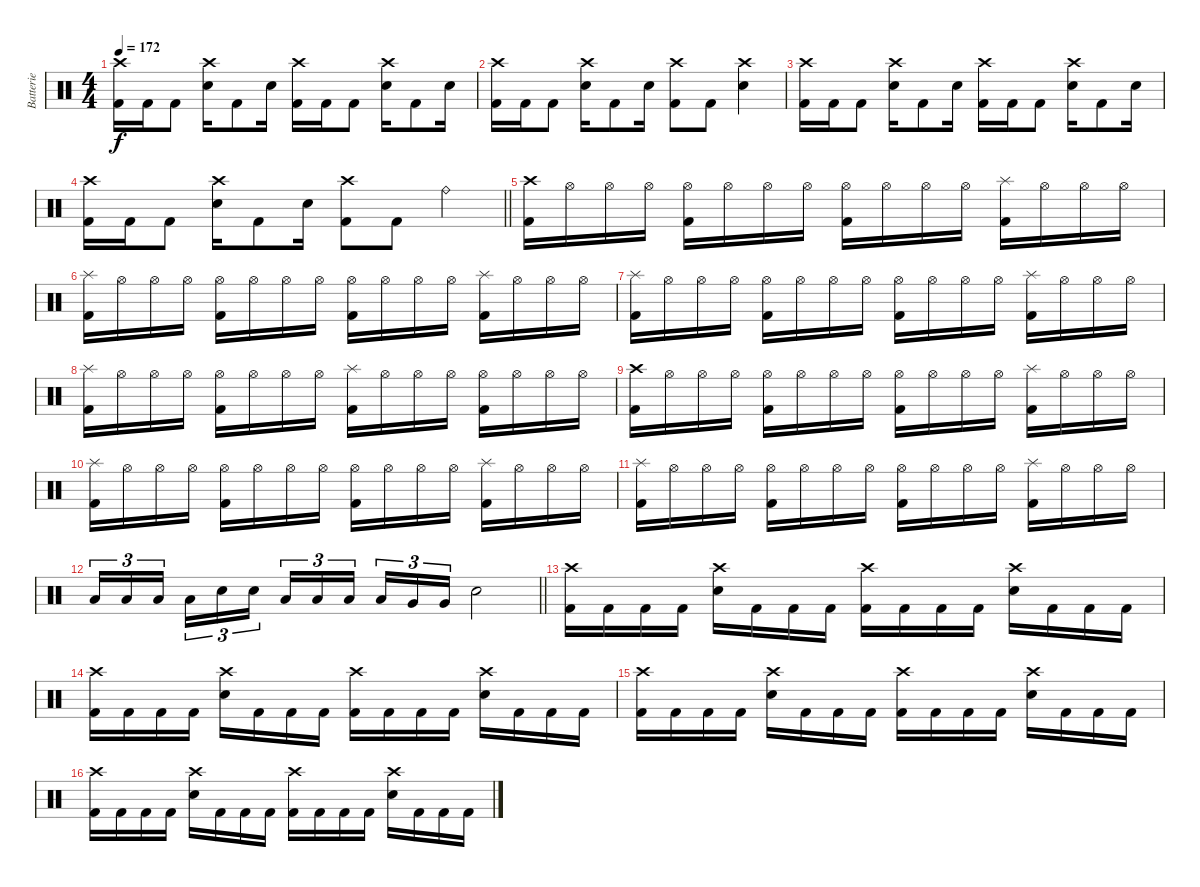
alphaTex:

\track ("Batterie" "Batterie") {instrument percussion}
\staff {score}
\articulation defaults
\ts (4 4)
\tempo 172
\clef neutral
\ks c
("Crash high (hit)" "Kick (hit) 2").16{dy f} "Kick (hit) 2".16 "Kick (hit) 2".8 ("Crash high (hit)" "Electric Snare (hit)").16 "Kick (hit) 2".8 "Electric Snare (hit)".16 ("Crash high (hit)" "Kick (hit) 2").16 "Kick (hit) 2".16 "Kick (hit) 2".8 ("Crash high (hit)" "Electric Snare (hit)").16 "Kick (hit) 2".8 "Electric Snare (hit)".16 |
("Crash high (hit)" "Kick (hit) 2").16 "Kick (hit) 2".16 "Kick (hit) 2".8 ("Crash high (hit)" "Electric Snare (hit)").16 "Kick (hit) 2".8 "Electric Snare (hit)".16 ("Crash high (hit)" "Kick (hit) 2").8 "Kick (hit) 2".8 ("Crash high (hit)" "Electric Snare (hit)").4 |
("Crash high (hit)" "Kick (hit) 2").16 "Kick (hit) 2".16 "Kick (hit) 2".8 ("Crash high (hit)" "Electric Snare (hit)").16 "Kick (hit) 2".8 "Electric Snare (hit)".16 ("Crash high (hit)" "Kick (hit) 2").16 "Kick (hit) 2".16 "Kick (hit) 2".8 ("Crash high (hit)" "Electric Snare (hit)").16 "Kick (hit) 2".8 "Electric Snare (hit)".16 |
\barLineRight lightlight
("Crash high (hit)" "Kick (hit) 2").16 "Kick (hit) 2".16 "Kick (hit) 2".8 ("Crash high (hit)" "Electric Snare (hit)").16 "Kick (hit) 2".8 "Electric Snare (hit)".16 ("Crash high (hit)" "Kick (hit) 2").8 "Kick (hit) 2".8 "Ride (bell)".4 |
("Crash high (hit)" "Kick (hit) 2").16 "Hi-Hat (open)".16 "Hi-Hat (open)".16 "Hi-Hat (open)".16 ("Hi-Hat (open)" "Kick (hit) 2").16 "Hi-Hat (open)".16 "Hi-Hat (open)".16 "Hi-Hat (open)".16 ("Hi-Hat (open)" "Kick (hit) 2").16 "Hi-Hat (open)".16 "Hi-Hat (open)".16 "Hi-Hat (open)".16 ("Splash (hit)" "Kick (hit) 2").16 "Hi-Hat (open)".16 "Hi-Hat (open)".16 "Hi-Hat (open)".16 |
("Splash (hit)" "Kick (hit) 2").16 "Hi-Hat (open)".16 "Hi-Hat (open)".16 "Hi-Hat (open)".16 ("Hi-Hat (open)" "Kick (hit) 2").16 "Hi-Hat (open)".16 "Hi-Hat (open)".16 "Hi-Hat (open)".16 ("Hi-Hat (open)" "Kick (hit) 2").16 "Hi-Hat (open)".16 "Hi-Hat (open)".16 "Hi-Hat (open)".16 ("Splash (hit)" "Kick (hit) 2").16 "Hi-Hat (open)".16 "Hi-Hat (open)".16 "Hi-Hat (open)".16 |
("Splash (hit)" "Kick (hit) 2").16 "Hi-Hat (open)".16 "Hi-Hat (open)".16 "Hi-Hat (open)".16 ("Hi-Hat (open)" "Kick (hit) 2").16 "Hi-Hat (open)".16 "Hi-Hat (open)".16 "Hi-Hat (open)".16 ("Hi-Hat (open)" "Kick (hit) 2").16 "Hi-Hat (open)".16 "Hi-Hat (open)".16 "Hi-Hat (open)".16 ("Splash (hit)" "Kick (hit) 2").16 "Hi-Hat (open)".16 "Hi-Hat (open)".16 "Hi-Hat (open)".16 |
("Splash (hit)" "Kick (hit) 2").16 "Hi-Hat (open)".16 "Hi-Hat (open)".16 "Hi-Hat (open)".16 ("Hi-Hat (open)" "Kick (hit) 2").16 "Hi-Hat (open)".16 "Hi-Hat (open)".16 "Hi-Hat (open)".16 ("Splash (hit)" "Kick (hit) 2").16 "Hi-Hat (open)".16 "Hi-Hat (open)".16 "Hi-Hat (open)".16 ("Hi-Hat (open)" "Kick (hit) 2").16 "Hi-Hat (open)".16 "Hi-Hat (open)".16 "Hi-Hat (open)".16 |
("Crash high (hit)" "Kick (hit) 2").16 "Hi-Hat (open)".16 "Hi-Hat (open)".16 "Hi-Hat (open)".16 ("Hi-Hat (open)" "Kick (hit) 2").16 "Hi-Hat (open)".16 "Hi-Hat (open)".16 "Hi-Hat (open)".16 ("Hi-Hat (open)" "Kick (hit) 2").16 "Hi-Hat (open)".16 "Hi-Hat (open)".16 "Hi-Hat (open)".16 ("Splash (hit)" "Kick (hit) 2").16 "Hi-Hat (open)".16 "Hi-Hat (open)".16 "Hi-Hat (open)".16 |
("Splash (hit)" "Kick (hit) 2").16 "Hi-Hat (open)".16 "Hi-Hat (open)".16 "Hi-Hat (open)".16 ("Hi-Hat (open)" "Kick (hit) 2").16 "Hi-Hat (open)".16 "Hi-Hat (open)".16 "Hi-Hat (open)".16 ("Hi-Hat (open)" "Kick (hit) 2").16 "Hi-Hat (open)".16 "Hi-Hat (open)".16 "Hi-Hat (open)".16 ("Splash (hit)" "Kick (hit) 2").16 "Hi-Hat (open)".16 "Hi-Hat (open)".16 "Hi-Hat (open)".16 |
("Splash (hit)" "Kick (hit) 2").16 "Hi-Hat (open)".16 "Hi-Hat (open)".16 "Hi-Hat (open)".16 ("Hi-Hat (open)" "Kick (hit) 2").16 "Hi-Hat (open)".16 "Hi-Hat (open)".16 "Hi-Hat (open)".16 ("Hi-Hat (open)" "Kick (hit) 2").16 "Hi-Hat (open)".16 "Hi-Hat (open)".16 "Hi-Hat (open)".16 ("Splash (hit)" "Kick (hit) 2").16 "Hi-Hat (open)".16 "Hi-Hat (open)".16 "Hi-Hat (open)".16 |
\barLineRight lightlight "Low Tom (hit)".16{tu (3 2)} "Low Tom (hit)".16{tu (3 2)} "Low Tom (hit)".16{tu (3 2)} "Low Tom (hit)".16{tu (3 2)} "Electric Snare (hit)".16{tu (3 2)} "Electric Snare (hit)".16{tu (3 2)} "Low Tom (hit)".16{tu (3 2)} "Low Tom (hit)".16{tu (3 2)} "Low Tom (hit)".16{tu (3 2)} "Low Tom (hit)".16{tu (3 2)} "Very Low Tom (hit)".16{tu (3 2)} "Very Low Tom (hit)".16{tu (3 2)} "Electric Snare (hit)".2
|
("Crash high (hit)" "Kick (hit) 2").16 "Kick (hit) 2".16 "Kick (hit) 2".16 "Kick (hit) 2".16 ("Crash high (hit)" "Electric Snare (hit)").16 "Kick (hit) 2".16 "Kick (hit) 2".16 "Kick (hit) 2".16 ("Crash high (hit)" "Kick (hit) 2").16 "Kick (hit) 2".16 "Kick (hit) 2".16 "Kick (hit) 2".16 ("Crash high (hit)" "Electric Snare (hit)").16 "Kick (hit) 2".16 "Kick (hit) 2".16 "Kick (hit) 2".16 |
("Crash high (hit)" "Kick (hit) 2").16 "Kick (hit) 2".16 "Kick (hit) 2".16 "Kick (hit) 2".16 ("Crash high (hit)" "Electric Snare (hit)").16 "Kick (hit) 2".16 "Kick (hit) 2".16 "Kick (hit) 2".16 ("Crash high (hit)" "Kick (hit) 2").16 "Kick (hit) 2".16 "Kick (hit) 2".16 "Kick (hit) 2".16 ("Crash high (hit)" "Electric Snare (hit)").16 "Kick (hit) 2".16 "Kick (hit) 2".16 "Kick (hit) 2".16 |
("Crash high (hit)" "Kick (hit) 2").16 "Kick (hit) 2".16 "Kick (hit) 2".16 "Kick (hit) 2".16 ("Crash high (hit)" "Electric Snare (hit)").16 "Kick (hit) 2".16 "Kick (hit) 2".16 "Kick (hit) 2".16 ("Crash high (hit)" "Kick (hit) 2").16 "Kick (hit) 2".16 "Kick (hit) 2".16 "Kick (hit) 2".16 ("Crash high (hit)" "Electric Snare (hit)").16 "Kick (hit) 2".16 "Kick (hit) 2".16 "Kick (hit) 2".16 |
("Crash high (hit)" "Kick (hit) 2").16 "Kick (hit) 2".16 "Kick (hit) 2".16 "Kick (hit) 2".16 ("Crash high (hit)" "Electric Snare (hit)").16 "Kick (hit) 2".16 "Kick (hit) 2".16 "Kick (hit) 2".16 ("Crash high (hit)" "Kick (hit) 2").16 "Kick (hit) 2".16 "Kick (hit) 2".16 "Kick (hit) 2".16 ("Crash high (hit)" "Electric Snare (hit)").16 "Kick (hit) 2".16 "Kick (hit) 2".16 "Kick (hit) 2".16
